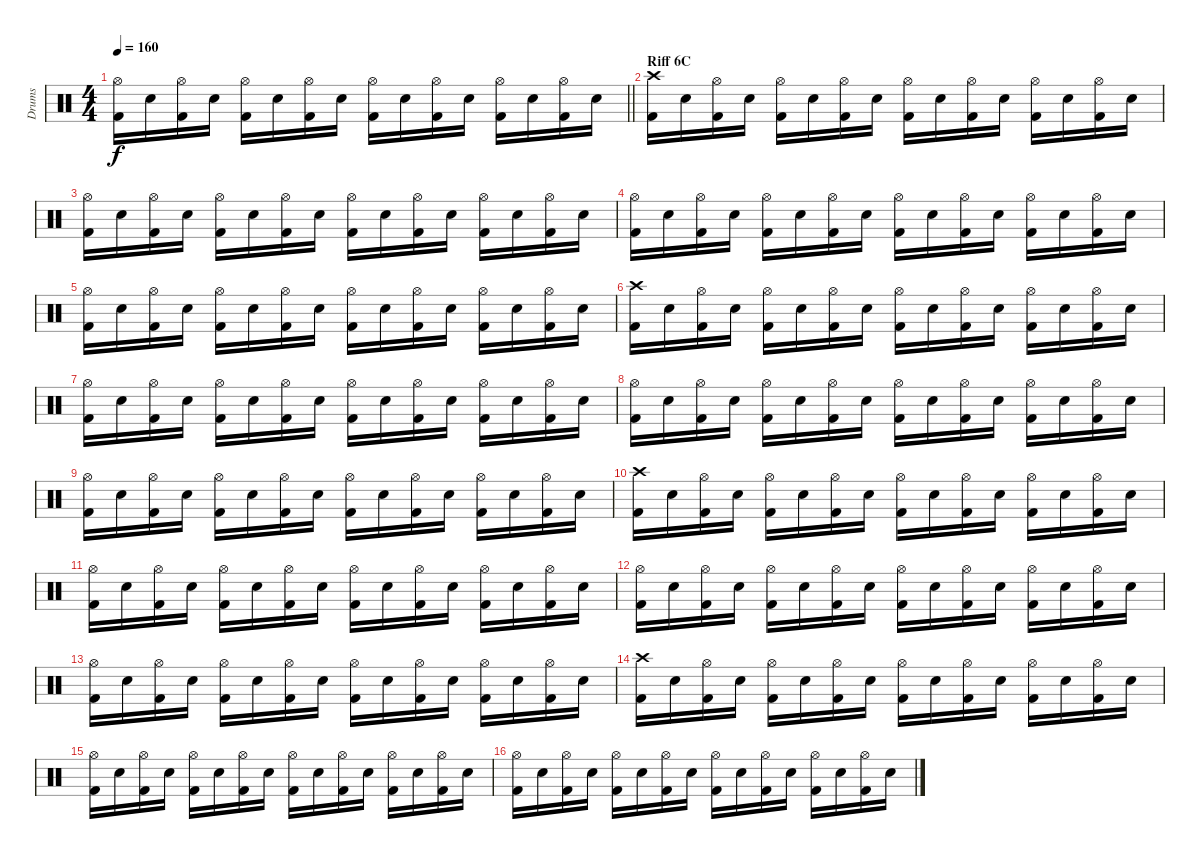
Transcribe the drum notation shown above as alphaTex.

\track ("Drums" "Drums") {instrument percussion}
\staff {score}
\articulation defaults
\ts (4 4)
\tempo 160
\clef neutral
\barLineRight lightlight
\ks c
("Hi-Hat (open)" "Kick (hit) 2").16{dy f} "Electric Snare (hit)".16 ("Hi-Hat (open)" "Kick (hit) 2").16 "Electric Snare (hit)".16 ("Hi-Hat (open)" "Kick (hit) 2").16 "Electric Snare (hit)".16 ("Hi-Hat (open)" "Kick (hit) 2").16 "Electric Snare (hit)".16 ("Hi-Hat (open)" "Kick (hit) 2").16 "Electric Snare (hit)".16 ("Hi-Hat (open)" "Kick (hit) 2").16 "Electric Snare (hit)".16 ("Hi-Hat (open)" "Kick (hit) 2").16 "Electric Snare (hit)".16 ("Hi-Hat (open)" "Kick (hit) 2").16 "Electric Snare (hit)".16 |
\section ("" "Riff 6C")
("Crash high (hit)" "Kick (hit) 2").16 "Electric Snare (hit)".16 ("Hi-Hat (open)" "Kick (hit) 2").16 "Electric Snare (hit)".16 ("Hi-Hat (open)" "Kick (hit) 2").16 "Electric Snare (hit)".16 ("Hi-Hat (open)" "Kick (hit) 2").16 "Electric Snare (hit)".16 ("Hi-Hat (open)" "Kick (hit) 2").16 "Electric Snare (hit)".16 ("Hi-Hat (open)" "Kick (hit) 2").16 "Electric Snare (hit)".16 ("Hi-Hat (open)" "Kick (hit) 2").16 "Electric Snare (hit)".16 ("Hi-Hat (open)" "Kick (hit) 2").16 "Electric Snare (hit)".16 |
("Hi-Hat (open)" "Kick (hit) 2").16 "Electric Snare (hit)".16 ("Hi-Hat (open)" "Kick (hit) 2").16 "Electric Snare (hit)".16 ("Hi-Hat (open)" "Kick (hit) 2").16 "Electric Snare (hit)".16 ("Hi-Hat (open)" "Kick (hit) 2").16 "Electric Snare (hit)".16 ("Hi-Hat (open)" "Kick (hit) 2").16 "Electric Snare (hit)".16 ("Hi-Hat (open)" "Kick (hit) 2").16 "Electric Snare (hit)".16 ("Hi-Hat (open)" "Kick (hit) 2").16 "Electric Snare (hit)".16 ("Hi-Hat (open)" "Kick (hit) 2").16 "Electric Snare (hit)".16 |
("Hi-Hat (open)" "Kick (hit) 2").16 "Electric Snare (hit)".16 ("Hi-Hat (open)" "Kick (hit) 2").16 "Electric Snare (hit)".16 ("Hi-Hat (open)" "Kick (hit) 2").16 "Electric Snare (hit)".16 ("Hi-Hat (open)" "Kick (hit) 2").16 "Electric Snare (hit)".16 ("Hi-Hat (open)" "Kick (hit) 2").16 "Electric Snare (hit)".16 ("Hi-Hat (open)" "Kick (hit) 2").16 "Electric Snare (hit)".16 ("Hi-Hat (open)" "Kick (hit) 2").16 "Electric Snare (hit)".16 ("Hi-Hat (open)" "Kick (hit) 2").16 "Electric Snare (hit)".16 |
("Hi-Hat (open)" "Kick (hit) 2").16 "Electric Snare (hit)".16 ("Hi-Hat (open)" "Kick (hit) 2").16 "Electric Snare (hit)".16 ("Hi-Hat (open)" "Kick (hit) 2").16 "Electric Snare (hit)".16 ("Hi-Hat (open)" "Kick (hit) 2").16 "Electric Snare (hit)".16 ("Hi-Hat (open)" "Kick (hit) 2").16 "Electric Snare (hit)".16 ("Hi-Hat (open)" "Kick (hit) 2").16 "Electric Snare (hit)".16 ("Hi-Hat (open)" "Kick (hit) 2").16 "Electric Snare (hit)".16 ("Hi-Hat (open)" "Kick (hit) 2").16 "Electric Snare (hit)".16 |
("Crash high (hit)" "Kick (hit) 2").16 "Electric Snare (hit)".16 ("Hi-Hat (open)" "Kick (hit) 2").16 "Electric Snare (hit)".16 ("Hi-Hat (open)" "Kick (hit) 2").16 "Electric Snare (hit)".16 ("Hi-Hat (open)" "Kick (hit) 2").16 "Electric Snare (hit)".16 ("Hi-Hat (open)" "Kick (hit) 2").16 "Electric Snare (hit)".16 ("Hi-Hat (open)" "Kick (hit) 2").16 "Electric Snare (hit)".16 ("Hi-Hat (open)" "Kick (hit) 2").16 "Electric Snare (hit)".16 ("Hi-Hat (open)" "Kick (hit) 2").16 "Electric Snare (hit)".16 |
("Hi-Hat (open)" "Kick (hit) 2").16 "Electric Snare (hit)".16 ("Hi-Hat (open)" "Kick (hit) 2").16 "Electric Snare (hit)".16 ("Hi-Hat (open)" "Kick (hit) 2").16 "Electric Snare (hit)".16 ("Hi-Hat (open)" "Kick (hit) 2").16 "Electric Snare (hit)".16 ("Hi-Hat (open)" "Kick (hit) 2").16 "Electric Snare (hit)".16 ("Hi-Hat (open)" "Kick (hit) 2").16 "Electric Snare (hit)".16 ("Hi-Hat (open)" "Kick (hit) 2").16 "Electric Snare (hit)".16 ("Hi-Hat (open)" "Kick (hit) 2").16 "Electric Snare (hit)".16 |
("Hi-Hat (open)" "Kick (hit) 2").16 "Electric Snare (hit)".16 ("Hi-Hat (open)" "Kick (hit) 2").16 "Electric Snare (hit)".16 ("Hi-Hat (open)" "Kick (hit) 2").16 "Electric Snare (hit)".16 ("Hi-Hat (open)" "Kick (hit) 2").16 "Electric Snare (hit)".16 ("Hi-Hat (open)" "Kick (hit) 2").16 "Electric Snare (hit)".16 ("Hi-Hat (open)" "Kick (hit) 2").16 "Electric Snare (hit)".16 ("Hi-Hat (open)" "Kick (hit) 2").16 "Electric Snare (hit)".16 ("Hi-Hat (open)" "Kick (hit) 2").16 "Electric Snare (hit)".16 |
("Hi-Hat (open)" "Kick (hit) 2").16 "Electric Snare (hit)".16 ("Hi-Hat (open)" "Kick (hit) 2").16 "Electric Snare (hit)".16 ("Hi-Hat (open)" "Kick (hit) 2").16 "Electric Snare (hit)".16 ("Hi-Hat (open)" "Kick (hit) 2").16 "Electric Snare (hit)".16 ("Hi-Hat (open)" "Kick (hit) 2").16 "Electric Snare (hit)".16 ("Hi-Hat (open)" "Kick (hit) 2").16 "Electric Snare (hit)".16 ("Hi-Hat (open)" "Kick (hit) 2").16 "Electric Snare (hit)".16 ("Hi-Hat (open)" "Kick (hit) 2").16 "Electric Snare (hit)".16 |
("Crash high (hit)" "Kick (hit) 2").16 "Electric Snare (hit)".16 ("Hi-Hat (open)" "Kick (hit) 2").16 "Electric Snare (hit)".16 ("Hi-Hat (open)" "Kick (hit) 2").16 "Electric Snare (hit)".16 ("Hi-Hat (open)" "Kick (hit) 2").16 "Electric Snare (hit)".16 ("Hi-Hat (open)" "Kick (hit) 2").16 "Electric Snare (hit)".16 ("Hi-Hat (open)" "Kick (hit) 2").16 "Electric Snare (hit)".16 ("Hi-Hat (open)" "Kick (hit) 2").16 "Electric Snare (hit)".16 ("Hi-Hat (open)" "Kick (hit) 2").16 "Electric Snare (hit)".16 |
("Hi-Hat (open)" "Kick (hit) 2").16 "Electric Snare (hit)".16 ("Hi-Hat (open)" "Kick (hit) 2").16 "Electric Snare (hit)".16 ("Hi-Hat (open)" "Kick (hit) 2").16 "Electric Snare (hit)".16 ("Hi-Hat (open)" "Kick (hit) 2").16 "Electric Snare (hit)".16 ("Hi-Hat (open)" "Kick (hit) 2").16 "Electric Snare (hit)".16 ("Hi-Hat (open)" "Kick (hit) 2").16 "Electric Snare (hit)".16 ("Hi-Hat (open)" "Kick (hit) 2").16 "Electric Snare (hit)".16 ("Hi-Hat (open)" "Kick (hit) 2").16 "Electric Snare (hit)".16 |
("Hi-Hat (open)" "Kick (hit) 2").16 "Electric Snare (hit)".16 ("Hi-Hat (open)" "Kick (hit) 2").16 "Electric Snare (hit)".16 ("Hi-Hat (open)" "Kick (hit) 2").16 "Electric Snare (hit)".16 ("Hi-Hat (open)" "Kick (hit) 2").16 "Electric Snare (hit)".16 ("Hi-Hat (open)" "Kick (hit) 2").16 "Electric Snare (hit)".16 ("Hi-Hat (open)" "Kick (hit) 2").16 "Electric Snare (hit)".16 ("Hi-Hat (open)" "Kick (hit) 2").16 "Electric Snare (hit)".16 ("Hi-Hat (open)" "Kick (hit) 2").16 "Electric Snare (hit)".16 |
("Hi-Hat (open)" "Kick (hit) 2").16 "Electric Snare (hit)".16 ("Hi-Hat (open)" "Kick (hit) 2").16 "Electric Snare (hit)".16 ("Hi-Hat (open)" "Kick (hit) 2").16 "Electric Snare (hit)".16 ("Hi-Hat (open)" "Kick (hit) 2").16 "Electric Snare (hit)".16 ("Hi-Hat (open)" "Kick (hit) 2").16 "Electric Snare (hit)".16 ("Hi-Hat (open)" "Kick (hit) 2").16 "Electric Snare (hit)".16 ("Hi-Hat (open)" "Kick (hit) 2").16 "Electric Snare (hit)".16 ("Hi-Hat (open)" "Kick (hit) 2").16 "Electric Snare (hit)".16 |
("Crash high (hit)" "Kick (hit) 2").16 "Electric Snare (hit)".16 ("Hi-Hat (open)" "Kick (hit) 2").16 "Electric Snare (hit)".16 ("Hi-Hat (open)" "Kick (hit) 2").16 "Electric Snare (hit)".16 ("Hi-Hat (open)" "Kick (hit) 2").16 "Electric Snare (hit)".16 ("Hi-Hat (open)" "Kick (hit) 2").16 "Electric Snare (hit)".16 ("Hi-Hat (open)" "Kick (hit) 2").16 "Electric Snare (hit)".16 ("Hi-Hat (open)" "Kick (hit) 2").16 "Electric Snare (hit)".16 ("Hi-Hat (open)" "Kick (hit) 2").16 "Electric Snare (hit)".16 |
("Hi-Hat (open)" "Kick (hit) 2").16 "Electric Snare (hit)".16 ("Hi-Hat (open)" "Kick (hit) 2").16 "Electric Snare (hit)".16 ("Hi-Hat (open)" "Kick (hit) 2").16 "Electric Snare (hit)".16 ("Hi-Hat (open)" "Kick (hit) 2").16 "Electric Snare (hit)".16 ("Hi-Hat (open)" "Kick (hit) 2").16 "Electric Snare (hit)".16 ("Hi-Hat (open)" "Kick (hit) 2").16 "Electric Snare (hit)".16 ("Hi-Hat (open)" "Kick (hit) 2").16 "Electric Snare (hit)".16 ("Hi-Hat (open)" "Kick (hit) 2").16 "Electric Snare (hit)".16 |
("Hi-Hat (open)" "Kick (hit) 2").16 "Electric Snare (hit)".16 ("Hi-Hat (open)" "Kick (hit) 2").16 "Electric Snare (hit)".16 ("Hi-Hat (open)" "Kick (hit) 2").16 "Electric Snare (hit)".16 ("Hi-Hat (open)" "Kick (hit) 2").16 "Electric Snare (hit)".16 ("Hi-Hat (open)" "Kick (hit) 2").16 "Electric Snare (hit)".16 ("Hi-Hat (open)" "Kick (hit) 2").16 "Electric Snare (hit)".16 ("Hi-Hat (open)" "Kick (hit) 2").16 "Electric Snare (hit)".16 ("Hi-Hat (open)" "Kick (hit) 2").16 "Electric Snare (hit)".16
